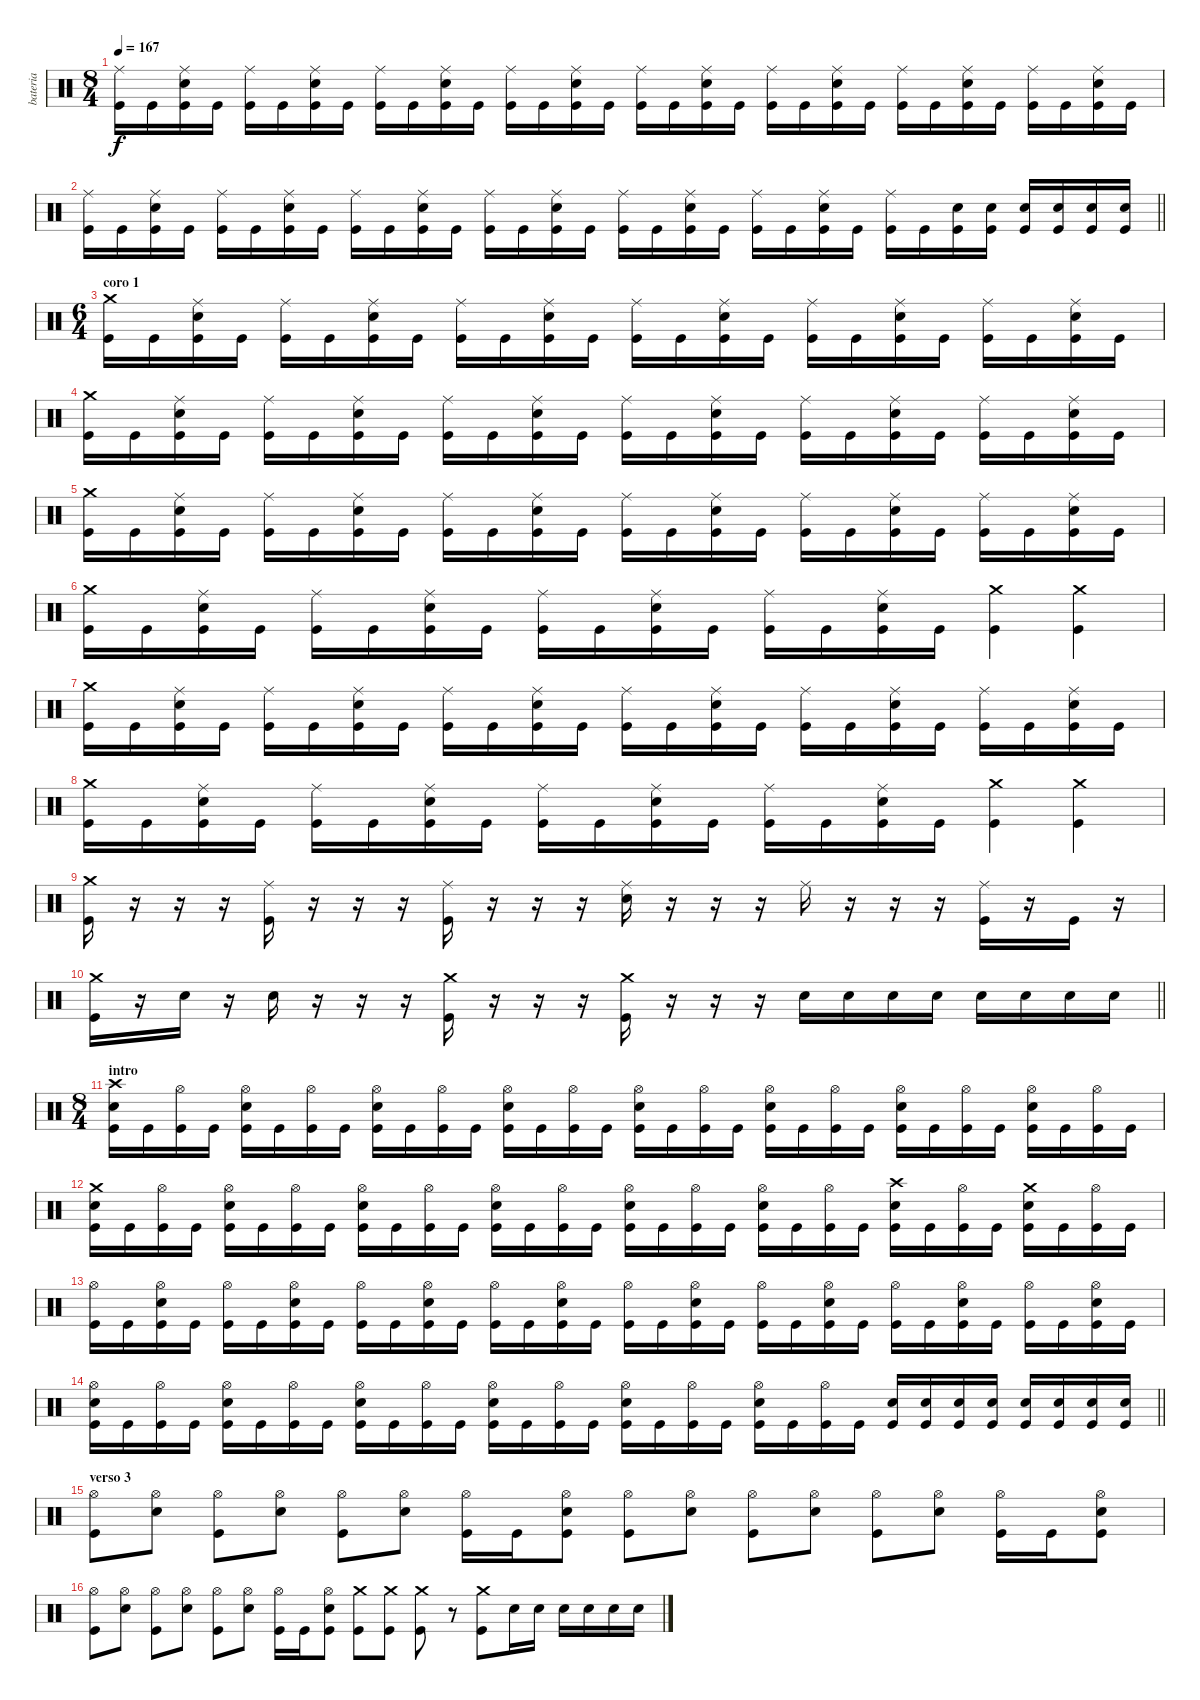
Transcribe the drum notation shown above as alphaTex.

\track ("bateria" "bateria") {instrument percussion}
\staff {score}
\articulation defaults
\ts (8 4)
\tempo 167
\clef neutral
\ks c
("Ride (middle)" "Kick (hit)").16{dy f} "Kick (hit)".16 ("Ride (middle)" "Snare (hit) 2" "Kick (hit)").16 "Kick (hit)".16 ("Ride (middle)" "Kick (hit)").16 "Kick (hit)".16 ("Ride (middle)" "Snare (hit) 2" "Kick (hit)").16 "Kick (hit)".16 ("Ride (middle)" "Kick (hit)").16 "Kick (hit)".16 ("Ride (middle)" "Snare (hit) 2" "Kick (hit)").16 "Kick (hit)".16 ("Ride (middle)" "Kick (hit)").16 "Kick (hit)".16 ("Ride (middle)" "Snare (hit) 2" "Kick (hit)").16 "Kick (hit)".16 ("Ride (middle)" "Kick (hit)").16 "Kick (hit)".16 ("Ride (middle)" "Snare (hit) 2" "Kick (hit)").16 "Kick (hit)".16 ("Ride (middle)" "Kick (hit)").16 "Kick (hit)".16 ("Ride (middle)" "Snare (hit) 2" "Kick (hit)").16 "Kick (hit)".16 ("Ride (middle)" "Kick (hit)").16 "Kick (hit)".16 ("Ride (middle)" "Snare (hit) 2" "Kick (hit)").16 "Kick (hit)".16 ("Ride (middle)" "Kick (hit)").16 "Kick (hit)".16 ("Ride (middle)" "Snare (hit) 2" "Kick (hit)").16 "Kick (hit)".16 |
\barLineRight lightlight
("Ride (middle)" "Kick (hit)").16 "Kick (hit)".16 ("Ride (middle)" "Snare (hit) 2" "Kick (hit)").16 "Kick (hit)".16 ("Ride (middle)" "Kick (hit)").16 "Kick (hit)".16 ("Ride (middle)" "Snare (hit) 2" "Kick (hit)").16 "Kick (hit)".16 ("Ride (middle)" "Kick (hit)").16 "Kick (hit)".16 ("Ride (middle)" "Snare (hit) 2" "Kick (hit)").16 "Kick (hit)".16 ("Ride (middle)" "Kick (hit)").16 "Kick (hit)".16 ("Ride (middle)" "Snare (hit) 2" "Kick (hit)").16 "Kick (hit)".16 ("Ride (middle)" "Kick (hit)").16 "Kick (hit)".16 ("Ride (middle)" "Snare (hit) 2" "Kick (hit)").16 "Kick (hit)".16 ("Ride (middle)" "Kick (hit)").16 "Kick (hit)".16 ("Ride (middle)" "Snare (hit) 2" "Kick (hit)").16 "Kick (hit)".16 ("Ride (middle)" "Kick (hit)").16 "Kick (hit)".16 ("Snare (hit) 2" "Kick (hit)").16 ("Snare (hit) 2" "Kick (hit)").16 ("Snare (hit) 2" "Kick (hit)").16 ("Snare (hit) 2" "Kick (hit)").16 ("Snare (hit) 2" "Kick (hit)").16 ("Snare (hit) 2" "Kick (hit)").16 |
\ts (6 4)
\section ("" "coro 1")
("Crash medium (hit)" "Kick (hit)").16 "Kick (hit)".16 ("Ride (middle)" "Snare (hit) 2" "Kick (hit)").16 "Kick (hit)".16 ("Ride (middle)" "Kick (hit)").16 "Kick (hit)".16 ("Ride (middle)" "Snare (hit) 2" "Kick (hit)").16 "Kick (hit)".16 ("Ride (middle)" "Kick (hit)").16 "Kick (hit)".16 ("Ride (middle)" "Snare (hit) 2" "Kick (hit)").16 "Kick (hit)".16 ("Ride (middle)" "Kick (hit)").16 "Kick (hit)".16 ("Ride (middle)" "Snare (hit) 2" "Kick (hit)").16 "Kick (hit)".16 ("Ride (middle)" "Kick (hit)").16 "Kick (hit)".16 ("Ride (middle)" "Snare (hit) 2" "Kick (hit)").16 "Kick (hit)".16 ("Ride (middle)" "Kick (hit)").16 "Kick (hit)".16 ("Ride (middle)" "Snare (hit) 2" "Kick (hit)").16 "Kick (hit)".16 |
("Crash medium (hit)" "Kick (hit)").16 "Kick (hit)".16 ("Ride (middle)" "Snare (hit) 2" "Kick (hit)").16 "Kick (hit)".16 ("Ride (middle)" "Kick (hit)").16 "Kick (hit)".16 ("Ride (middle)" "Snare (hit) 2" "Kick (hit)").16 "Kick (hit)".16 ("Ride (middle)" "Kick (hit)").16 "Kick (hit)".16 ("Ride (middle)" "Snare (hit) 2" "Kick (hit)").16 "Kick (hit)".16 ("Ride (middle)" "Kick (hit)").16 "Kick (hit)".16 ("Ride (middle)" "Snare (hit) 2" "Kick (hit)").16 "Kick (hit)".16 ("Ride (middle)" "Kick (hit)").16 "Kick (hit)".16 ("Ride (middle)" "Snare (hit) 2" "Kick (hit)").16 "Kick (hit)".16 ("Ride (middle)" "Kick (hit)").16 "Kick (hit)".16 ("Ride (middle)" "Snare (hit) 2" "Kick (hit)").16 "Kick (hit)".16 |
("Crash medium (hit)" "Kick (hit)").16 "Kick (hit)".16 ("Ride (middle)" "Snare (hit) 2" "Kick (hit)").16 "Kick (hit)".16 ("Ride (middle)" "Kick (hit)").16 "Kick (hit)".16 ("Ride (middle)" "Snare (hit) 2" "Kick (hit)").16 "Kick (hit)".16 ("Ride (middle)" "Kick (hit)").16 "Kick (hit)".16 ("Ride (middle)" "Snare (hit) 2" "Kick (hit)").16 "Kick (hit)".16 ("Ride (middle)" "Kick (hit)").16 "Kick (hit)".16 ("Ride (middle)" "Snare (hit) 2" "Kick (hit)").16 "Kick (hit)".16 ("Ride (middle)" "Kick (hit)").16 "Kick (hit)".16 ("Ride (middle)" "Snare (hit) 2" "Kick (hit)").16 "Kick (hit)".16 ("Ride (middle)" "Kick (hit)").16 "Kick (hit)".16 ("Ride (middle)" "Snare (hit) 2" "Kick (hit)").16 "Kick (hit)".16 |
("Crash medium (hit)" "Kick (hit)").16 "Kick (hit)".16 ("Ride (middle)" "Snare (hit) 2" "Kick (hit)").16 "Kick (hit)".16 ("Ride (middle)" "Kick (hit)").16 "Kick (hit)".16 ("Ride (middle)" "Snare (hit) 2" "Kick (hit)").16 "Kick (hit)".16 ("Ride (middle)" "Kick (hit)").16 "Kick (hit)".16 ("Ride (middle)" "Snare (hit) 2" "Kick (hit)").16 "Kick (hit)".16 ("Ride (middle)" "Kick (hit)").16 "Kick (hit)".16 ("Ride (middle)" "Snare (hit) 2" "Kick (hit)").16 "Kick (hit)".16 ("Crash medium (hit)" "Kick (hit)").4 ("Crash medium (hit)" "Kick (hit)").4 |
("Crash medium (hit)" "Kick (hit)").16 "Kick (hit)".16 ("Ride (middle)" "Snare (hit) 2" "Kick (hit)").16 "Kick (hit)".16 ("Ride (middle)" "Kick (hit)").16 "Kick (hit)".16 ("Ride (middle)" "Snare (hit) 2" "Kick (hit)").16 "Kick (hit)".16 ("Ride (middle)" "Kick (hit)").16 "Kick (hit)".16 ("Ride (middle)" "Snare (hit) 2" "Kick (hit)").16 "Kick (hit)".16 ("Ride (middle)" "Kick (hit)").16 "Kick (hit)".16 ("Ride (middle)" "Snare (hit) 2" "Kick (hit)").16 "Kick (hit)".16 ("Ride (middle)" "Kick (hit)").16 "Kick (hit)".16 ("Ride (middle)" "Snare (hit) 2" "Kick (hit)").16 "Kick (hit)".16 ("Ride (middle)" "Kick (hit)").16 "Kick (hit)".16 ("Ride (middle)" "Snare (hit) 2" "Kick (hit)").16 "Kick (hit)".16 |
("Crash medium (hit)" "Kick (hit)").16 "Kick (hit)".16 ("Ride (middle)" "Snare (hit) 2" "Kick (hit)").16 "Kick (hit)".16 ("Ride (middle)" "Kick (hit)").16 "Kick (hit)".16 ("Ride (middle)" "Snare (hit) 2" "Kick (hit)").16 "Kick (hit)".16 ("Ride (middle)" "Kick (hit)").16 "Kick (hit)".16 ("Ride (middle)" "Snare (hit) 2" "Kick (hit)").16 "Kick (hit)".16 ("Ride (middle)" "Kick (hit)").16 "Kick (hit)".16 ("Ride (middle)" "Snare (hit) 2" "Kick (hit)").16 "Kick (hit)".16 ("Crash medium (hit)" "Kick (hit)").4 ("Crash medium (hit)" "Kick (hit)").4 |
("Crash medium (hit)" "Kick (hit)").16 r.16 r.16 r.16 ("Ride (middle)" "Kick (hit)").16 r.16 r.16 r.16 ("Ride (middle)" "Kick (hit)").16 r.16 r.16 r.16 ("Ride (middle)" "Snare (hit) 2").16 r.16 r.16 r.16 "Ride (middle)".16 r.16 r.16 r.16 ("Ride (middle)" "Kick (hit)").16 r.16 "Kick (hit)".16 r.16 |
\barLineRight lightlight
("Crash medium (hit)" "Kick (hit)").16 r.16 "Snare (hit) 2".16 r.16 "Snare (hit) 2".16 r.16 r.16 r.16 ("Crash medium (hit)" "Kick (hit)").16 r.16 r.16 r.16 ("Crash medium (hit)" "Kick (hit)").16 r.16 r.16 r.16 "Snare (hit) 2".16 "Snare (hit) 2".16 "Snare (hit) 2".16 "Snare (hit) 2".16 "Snare (hit) 2".16 "Snare (hit) 2".16 "Snare (hit) 2".16 "Snare (hit) 2".16 |
\ts (8 4)
\section ("" "intro")
("Crash high (hit)" "Snare (hit) 2" "Kick (hit)").16 "Kick (hit)".16 ("Hi-Hat (open)" "Kick (hit)").16 "Kick (hit)".16 ("Hi-Hat (open)" "Snare (hit) 2" "Kick (hit)").16 "Kick (hit)".16 ("Hi-Hat (open)" "Kick (hit)").16 "Kick (hit)".16 ("Hi-Hat (open)" "Snare (hit) 2" "Kick (hit)").16 "Kick (hit)".16 ("Hi-Hat (open)" "Kick (hit)").16 "Kick (hit)".16 ("Hi-Hat (open)" "Snare (hit) 2" "Kick (hit)").16 "Kick (hit)".16 ("Hi-Hat (open)" "Kick (hit)").16 "Kick (hit)".16 ("Hi-Hat (open)" "Snare (hit) 2" "Kick (hit)").16 "Kick (hit)".16 ("Hi-Hat (open)" "Kick (hit)").16 "Kick (hit)".16 ("Hi-Hat (open)" "Snare (hit) 2" "Kick (hit)").16 "Kick (hit)".16 ("Hi-Hat (open)" "Kick (hit)").16 "Kick (hit)".16 ("Hi-Hat (open)" "Snare (hit) 2" "Kick (hit)").16 "Kick (hit)".16 ("Hi-Hat (open)" "Kick (hit)").16 "Kick (hit)".16 ("Hi-Hat (open)" "Snare (hit) 2" "Kick (hit)").16 "Kick (hit)".16 ("Hi-Hat (open)" "Kick (hit)").16 "Kick (hit)".16 |
("Crash medium (hit)" "Snare (hit) 2" "Kick (hit)").16 "Kick (hit)".16 ("Hi-Hat (open)" "Kick (hit)").16 "Kick (hit)".16 ("Hi-Hat (open)" "Snare (hit) 2" "Kick (hit)").16 "Kick (hit)".16 ("Hi-Hat (open)" "Kick (hit)").16 "Kick (hit)".16 ("Hi-Hat (open)" "Snare (hit) 2" "Kick (hit)").16 "Kick (hit)".16 ("Hi-Hat (open)" "Kick (hit)").16 "Kick (hit)".16 ("Hi-Hat (open)" "Snare (hit) 2" "Kick (hit)").16 "Kick (hit)".16 ("Hi-Hat (open)" "Kick (hit)").16 "Kick (hit)".16 ("Hi-Hat (open)" "Snare (hit) 2" "Kick (hit)").16 "Kick (hit)".16 ("Hi-Hat (open)" "Kick (hit)").16 "Kick (hit)".16 ("Hi-Hat (open)" "Snare (hit) 2" "Kick (hit)").16 "Kick (hit)".16 ("Hi-Hat (open)" "Kick (hit)").16 "Kick (hit)".16 ("Crash high (hit)" "Snare (hit) 2" "Kick (hit)").16 "Kick (hit)".16 ("Hi-Hat (open)" "Kick (hit)").16 "Kick (hit)".16 ("Crash medium (hit)" "Snare (hit) 2" "Kick (hit)").16 "Kick (hit)".16 ("Hi-Hat (open)" "Kick (hit)").16 "Kick (hit)".16 |
("Hi-Hat (open)" "Kick (hit)").16 "Kick (hit)".16 ("Hi-Hat (open)" "Snare (hit) 2" "Kick (hit)").16 "Kick (hit)".16 ("Hi-Hat (open)" "Kick (hit)").16 "Kick (hit)".16 ("Hi-Hat (open)" "Snare (hit) 2" "Kick (hit)").16 "Kick (hit)".16 ("Hi-Hat (open)" "Kick (hit)").16 "Kick (hit)".16 ("Hi-Hat (open)" "Snare (hit) 2" "Kick (hit)").16 "Kick (hit)".16 ("Hi-Hat (open)" "Kick (hit)").16 "Kick (hit)".16 ("Hi-Hat (open)" "Snare (hit) 2" "Kick (hit)").16 "Kick (hit)".16 ("Hi-Hat (open)" "Kick (hit)").16 "Kick (hit)".16 ("Hi-Hat (open)" "Snare (hit) 2" "Kick (hit)").16 "Kick (hit)".16 ("Hi-Hat (open)" "Kick (hit)").16 "Kick (hit)".16 ("Hi-Hat (open)" "Snare (hit) 2" "Kick (hit)").16 "Kick (hit)".16 ("Hi-Hat (open)" "Kick (hit)").16 "Kick (hit)".16 ("Hi-Hat (open)" "Snare (hit) 2" "Kick (hit)").16 "Kick (hit)".16 ("Hi-Hat (open)" "Kick (hit)").16 "Kick (hit)".16 ("Hi-Hat (open)" "Snare (hit) 2" "Kick (hit)").16 "Kick (hit)".16 |
\barLineRight lightlight
("Hi-Hat (open)" "Snare (hit) 2" "Kick (hit)").16 "Kick (hit)".16 ("Hi-Hat (open)" "Kick (hit)").16 "Kick (hit)".16 ("Hi-Hat (open)" "Snare (hit) 2" "Kick (hit)").16 "Kick (hit)".16 ("Hi-Hat (open)" "Kick (hit)").16 "Kick (hit)".16 ("Hi-Hat (open)" "Snare (hit) 2" "Kick (hit)").16 "Kick (hit)".16 ("Hi-Hat (open)" "Kick (hit)").16 "Kick (hit)".16 ("Hi-Hat (open)" "Snare (hit) 2" "Kick (hit)").16 "Kick (hit)".16 ("Hi-Hat (open)" "Kick (hit)").16 "Kick (hit)".16 ("Hi-Hat (open)" "Snare (hit) 2" "Kick (hit)").16 "Kick (hit)".16 ("Hi-Hat (open)" "Kick (hit)").16 "Kick (hit)".16 ("Hi-Hat (open)" "Snare (hit) 2" "Kick (hit)").16 "Kick (hit)".16 ("Hi-Hat (open)" "Kick (hit)").16 "Kick (hit)".16 ("Snare (hit) 2" "Kick (hit)").16 ("Snare (hit) 2" "Kick (hit)").16 ("Snare (hit) 2" "Kick (hit)").16 ("Snare (hit) 2" "Kick (hit)").16 ("Snare (hit) 2" "Kick (hit)").16 ("Snare (hit) 2" "Kick (hit)").16 ("Snare (hit) 2" "Kick (hit)").16 ("Snare (hit) 2" "Kick (hit)").16 |
\section ("" "verso 3")
("Hi-Hat (open)" "Kick (hit)").8 ("Hi-Hat (open)" "Snare (hit) 2").8 ("Hi-Hat (open)" "Kick (hit)").8 ("Hi-Hat (open)" "Snare (hit) 2").8 ("Hi-Hat (open)" "Kick (hit)").8 ("Hi-Hat (open)" "Snare (hit) 2").8 ("Hi-Hat (open)" "Kick (hit)").16 "Kick (hit)".16 ("Hi-Hat (open)" "Snare (hit) 2" "Kick (hit)").8 ("Hi-Hat (open)" "Kick (hit)").8 ("Hi-Hat (open)" "Snare (hit) 2").8 ("Hi-Hat (open)" "Kick (hit)").8 ("Hi-Hat (open)" "Snare (hit) 2").8 ("Hi-Hat (open)" "Kick (hit)").8 ("Hi-Hat (open)" "Snare (hit) 2").8 ("Hi-Hat (open)" "Kick (hit)").16 "Kick (hit)".16 ("Hi-Hat (open)" "Snare (hit) 2" "Kick (hit)").8 |
("Hi-Hat (open)" "Kick (hit)").8 ("Hi-Hat (open)" "Snare (hit) 2").8 ("Hi-Hat (open)" "Kick (hit)").8 ("Hi-Hat (open)" "Snare (hit) 2").8 ("Hi-Hat (open)" "Kick (hit)").8 ("Hi-Hat (open)" "Snare (hit) 2").8 ("Hi-Hat (open)" "Kick (hit)").16 "Kick (hit)".16 ("Hi-Hat (open)" "Snare (hit) 2" "Kick (hit)").8 ("Crash medium (hit)" "Kick (hit)").8 ("Crash medium (hit)" "Kick (hit)").8 ("Crash medium (hit)" "Kick (hit)").8 r.8 ("Crash medium (hit)" "Kick (hit)").8 "Snare (hit) 2".16 "Snare (hit) 2".16 "Snare (hit) 2".16 "Snare (hit) 2".16 "Snare (hit) 2".16 "Snare (hit) 2".16
